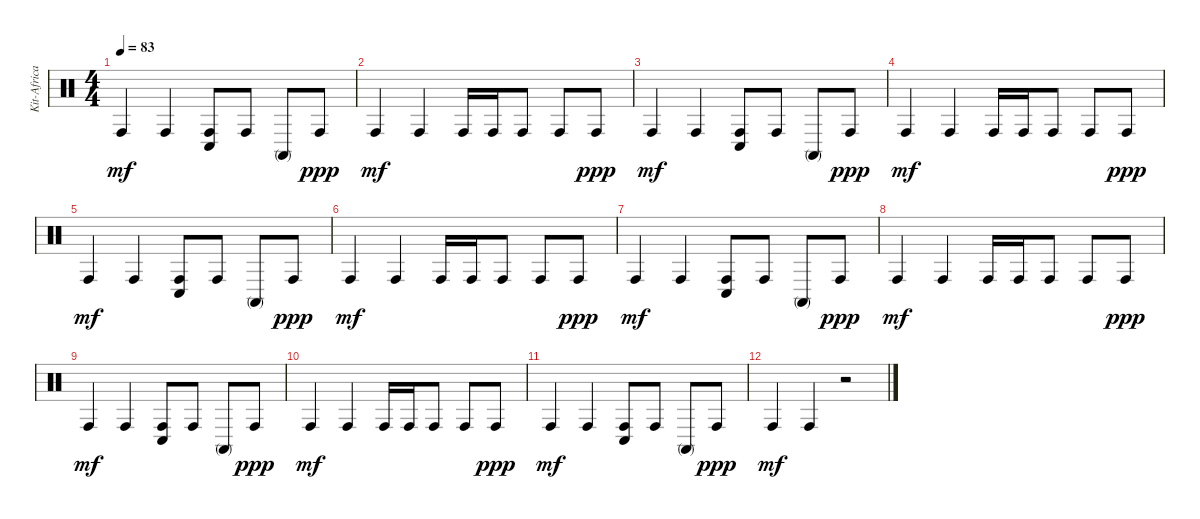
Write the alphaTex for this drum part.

\track ("Kit-Africa" "Kit-Africa") {instrument percussion}
\staff {score}
\articulation defaults
\ts (4 4)
\tempo 83
\clef neutral
\ks c "Conga high (hit)".4{dy mf} "Conga high (hit)".4
("Conga high (hit)" "Conga low (hit)").8 "Conga high (hit)".8 "Conga high (mute)".8 "Conga high (hit)".8{dy ppp} |
"Conga high (hit)".4{dy mf} "Conga high (hit)".4 "Conga high (hit)".16 "Conga high (hit)".16 "Conga high (hit)".8 "Conga high (hit)".8 "Conga high (hit)".8{dy ppp} |
"Conga high (hit)".4{dy mf} "Conga high (hit)".4 ("Conga high (hit)" "Conga low (hit)").8 "Conga high (hit)".8 "Conga high (mute)".8 "Conga high (hit)".8{dy ppp} |
"Conga high (hit)".4{dy mf} "Conga high (hit)".4 "Conga high (hit)".16 "Conga high (hit)".16 "Conga high (hit)".8 "Conga high (hit)".8 "Conga high (hit)".8{dy ppp} |
"Conga high (hit)".4{dy mf} "Conga high (hit)".4 ("Conga high (hit)" "Conga low (hit)").8 "Conga high (hit)".8 "Conga high (mute)".8 "Conga high (hit)".8{dy ppp} |
"Conga high (hit)".4{dy mf} "Conga high (hit)".4 "Conga high (hit)".16 "Conga high (hit)".16 "Conga high (hit)".8 "Conga high (hit)".8 "Conga high (hit)".8{dy ppp} |
"Conga high (hit)".4{dy mf} "Conga high (hit)".4 ("Conga high (hit)" "Conga low (hit)").8 "Conga high (hit)".8 "Conga high (mute)".8 "Conga high (hit)".8{dy ppp} |
"Conga high (hit)".4{dy mf} "Conga high (hit)".4 "Conga high (hit)".16 "Conga high (hit)".16 "Conga high (hit)".8 "Conga high (hit)".8 "Conga high (hit)".8{dy ppp} |
"Conga high (hit)".4{dy mf} "Conga high (hit)".4 ("Conga high (hit)" "Conga low (hit)").8 "Conga high (hit)".8 "Conga high (mute)".8 "Conga high (hit)".8{dy ppp} |
"Conga high (hit)".4{dy mf} "Conga high (hit)".4 "Conga high (hit)".16 "Conga high (hit)".16 "Conga high (hit)".8 "Conga high (hit)".8 "Conga high (hit)".8{dy ppp} |
"Conga high (hit)".4{dy mf} "Conga high (hit)".4 ("Conga high (hit)" "Conga low (hit)").8 "Conga high (hit)".8 "Conga high (mute)".8 "Conga high (hit)".8{dy ppp} |
"Conga high (hit)".4{dy mf} "Conga high (hit)".4 r.2
